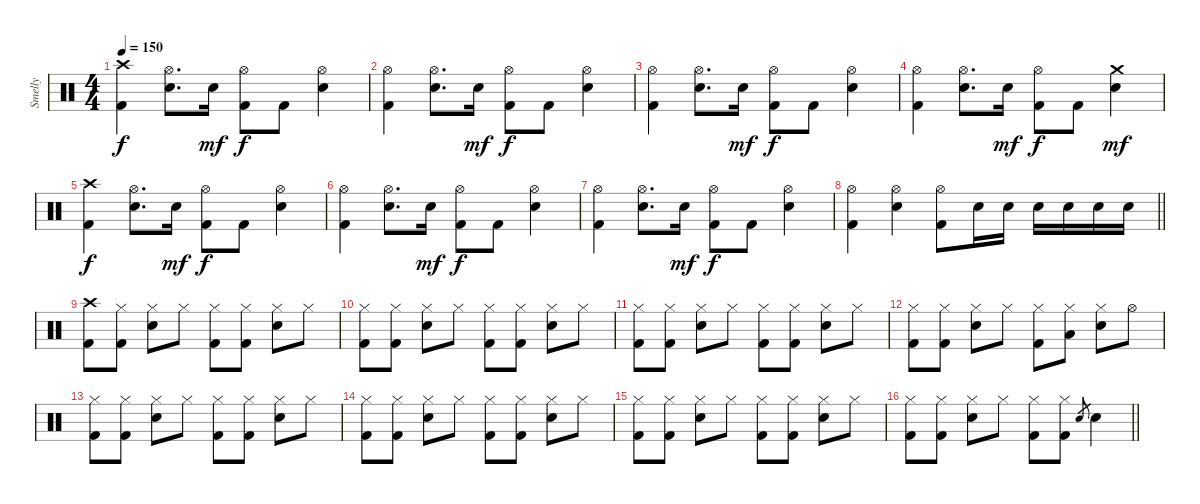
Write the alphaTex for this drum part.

\track ("Smelly" "Smelly") {instrument percussion}
\staff {score}
\articulation defaults
\ts (4 4)
\section ("" "")
\tempo 150
\clef neutral
\ks c
("Crash high (hit)" "Kick (hit) 2").4{dy f} ("Hi-Hat (open)" "Electric Snare (hit)").8{d} "Electric Snare (hit)".16{dy mf} ("Hi-Hat (open)" "Kick (hit) 2").8{dy f} "Kick (hit) 2".8 ("Hi-Hat (open)" "Electric Snare (hit)").4 |
("Hi-Hat (open)" "Kick (hit) 2").4 ("Hi-Hat (open)" "Electric Snare (hit)").8{d} "Electric Snare (hit)".16{dy mf} ("Hi-Hat (open)" "Kick (hit) 2").8{dy f} "Kick (hit) 2".8 ("Hi-Hat (open)" "Electric Snare (hit)").4 |
("Hi-Hat (open)" "Kick (hit) 2").4 ("Hi-Hat (open)" "Electric Snare (hit)").8{d} "Electric Snare (hit)".16{dy mf} ("Hi-Hat (open)" "Kick (hit) 2").8{dy f} "Kick (hit) 2".8 ("Hi-Hat (open)" "Electric Snare (hit)").4 |
("Hi-Hat (open)" "Kick (hit) 2").4 ("Hi-Hat (open)" "Electric Snare (hit)").8{d} "Electric Snare (hit)".16{dy mf} ("Hi-Hat (open)" "Kick (hit) 2").8{dy f} "Kick (hit) 2".8 ("Crash medium (hit)" "Electric Snare (hit)").4{dy mf} |
("Crash high (hit)" "Kick (hit) 2").4{dy f} ("Hi-Hat (open)" "Electric Snare (hit)").8{d} "Electric Snare (hit)".16{dy mf} ("Hi-Hat (open)" "Kick (hit) 2").8{dy f} "Kick (hit) 2".8 ("Hi-Hat (open)" "Electric Snare (hit)").4 |
("Hi-Hat (open)" "Kick (hit) 2").4 ("Hi-Hat (open)" "Electric Snare (hit)").8{d} "Electric Snare (hit)".16{dy mf} ("Hi-Hat (open)" "Kick (hit) 2").8{dy f} "Kick (hit) 2".8 ("Hi-Hat (open)" "Electric Snare (hit)").4 |
("Hi-Hat (open)" "Kick (hit) 2").4 ("Hi-Hat (open)" "Electric Snare (hit)").8{d} "Electric Snare (hit)".16{dy mf} ("Hi-Hat (open)" "Kick (hit) 2").8{dy f} "Kick (hit) 2".8 ("Hi-Hat (open)" "Electric Snare (hit)").4 |
\barLineRight lightlight
("Hi-Hat (open)" "Kick (hit) 2").4 ("Hi-Hat (open)" "Electric Snare (hit)").4 ("Hi-Hat (open)" "Kick (hit) 2").8 "Electric Snare (hit)".16 "Electric Snare (hit)".16 "Electric Snare (hit)".16 "Electric Snare (hit)".16 "Electric Snare (hit)".16 "Electric Snare (hit)".16 |
("Crash high (hit)" "Kick (hit) 2").8 ("Hi-Hat (closed)" "Kick (hit) 2").8 ("Hi-Hat (closed)" "Electric Snare (hit)").8 "Hi-Hat (closed)".8 ("Hi-Hat (closed)" "Kick (hit) 2").8 ("Hi-Hat (closed)" "Kick (hit) 2").8 ("Hi-Hat (closed)" "Electric Snare (hit)").8 "Hi-Hat (closed)".8 |
("Hi-Hat (closed)" "Kick (hit) 2").8 ("Hi-Hat (closed)" "Kick (hit) 2").8 ("Hi-Hat (closed)" "Electric Snare (hit)").8 "Hi-Hat (closed)".8 ("Hi-Hat (closed)" "Kick (hit) 2").8 ("Hi-Hat (closed)" "Kick (hit) 2").8 ("Hi-Hat (closed)" "Electric Snare (hit)").8 "Hi-Hat (closed)".8 |
("Hi-Hat (closed)" "Kick (hit) 2").8 ("Hi-Hat (closed)" "Kick (hit) 2").8 ("Hi-Hat (closed)" "Electric Snare (hit)").8 "Hi-Hat (closed)".8 ("Hi-Hat (closed)" "Kick (hit) 2").8 ("Hi-Hat (closed)" "Kick (hit) 2").8 ("Hi-Hat (closed)" "Electric Snare (hit)").8 "Hi-Hat (closed)".8 |
("Hi-Hat (closed)" "Kick (hit) 2").8 ("Hi-Hat (closed)" "Kick (hit) 2").8 ("Hi-Hat (closed)" "Electric Snare (hit)").8 "Hi-Hat (closed)".8 ("Hi-Hat (closed)" "Kick (hit) 2").8 ("Hi-Hat (closed)" "Low Tom (hit)").8 ("Hi-Hat (closed)" "Electric Snare (hit)").8 "Hi-Hat (open)".8 |
("Hi-Hat (closed)" "Kick (hit) 2").8 ("Hi-Hat (closed)" "Kick (hit) 2").8 ("Hi-Hat (closed)" "Electric Snare (hit)").8 "Hi-Hat (closed)".8 ("Hi-Hat (closed)" "Kick (hit) 2").8 ("Hi-Hat (closed)" "Kick (hit) 2").8 ("Hi-Hat (closed)" "Electric Snare (hit)").8 "Hi-Hat (closed)".8 |
("Hi-Hat (closed)" "Kick (hit) 2").8 ("Hi-Hat (closed)" "Kick (hit) 2").8 ("Hi-Hat (closed)" "Electric Snare (hit)").8 "Hi-Hat (closed)".8 ("Hi-Hat (closed)" "Kick (hit) 2").8 ("Hi-Hat (closed)" "Kick (hit) 2").8 ("Hi-Hat (closed)" "Electric Snare (hit)").8 "Hi-Hat (closed)".8 |
("Hi-Hat (closed)" "Kick (hit) 2").8 ("Hi-Hat (closed)" "Kick (hit) 2").8 ("Hi-Hat (closed)" "Electric Snare (hit)").8 "Hi-Hat (closed)".8 ("Hi-Hat (closed)" "Kick (hit) 2").8 ("Hi-Hat (closed)" "Kick (hit) 2").8 ("Hi-Hat (closed)" "Electric Snare (hit)").8 "Hi-Hat (closed)".8 |
\barLineRight lightlight
("Hi-Hat (closed)" "Kick (hit) 2").8 ("Hi-Hat (closed)" "Kick (hit) 2").8 ("Hi-Hat (closed)" "Electric Snare (hit)").8 "Hi-Hat (closed)".8 ("Hi-Hat (closed)" "Kick (hit) 2").8 ("Hi-Hat (closed)" "Kick (hit) 2").8 "Electric Snare (hit)".8{gr} "Electric Snare (hit)".4
